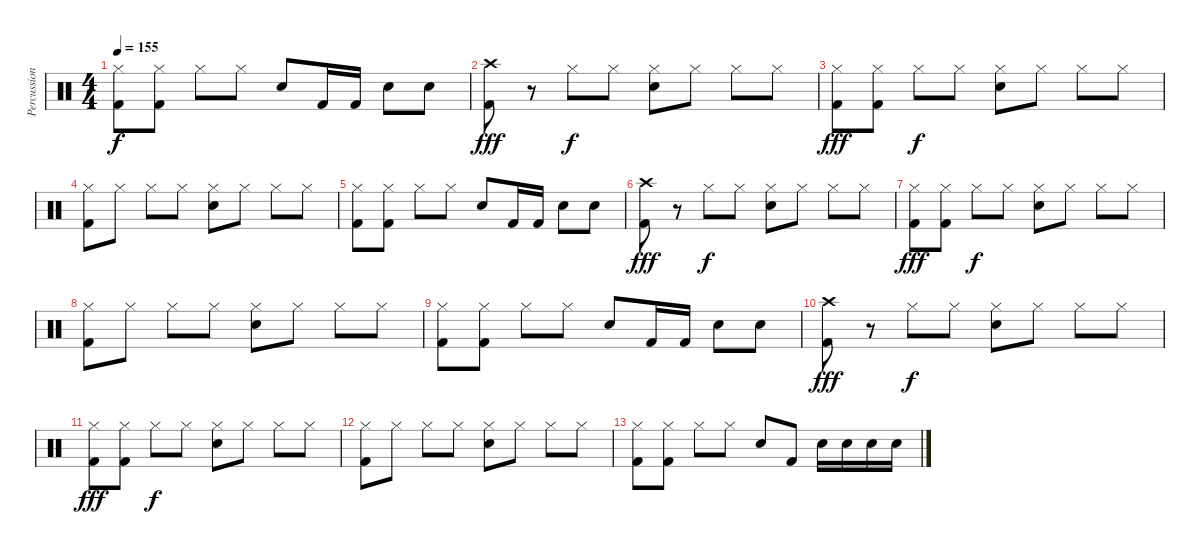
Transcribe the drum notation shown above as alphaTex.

\track ("Percussion" "Percussion") {instrument percussion}
\staff {score}
\articulation defaults
\ts (4 4)
\tempo 155
\clef neutral
\ks c
("Hi-Hat (closed)" "Kick (hit) 2").8{dy f} ("Hi-Hat (closed)" "Kick (hit) 2").8 "Hi-Hat (closed)".8 "Hi-Hat (closed)".8 "Snare (hit) 2".8 "Kick (hit) 2".16 "Kick (hit) 2".16 "Snare (hit) 2".8 "Snare (hit) 2".8 |
("Crash high (hit)" "Kick (hit) 2").8{dy fff} r.8 "Hi-Hat (closed)".8{dy f} "Hi-Hat (closed)".8 ("Hi-Hat (closed)" "Snare (hit) 2").8 "Hi-Hat (closed)".8 "Hi-Hat (closed)".8 "Hi-Hat (closed)".8 |
("Hi-Hat (closed)" "Kick (hit) 2").8{dy fff} ("Hi-Hat (closed)" "Kick (hit) 2").8 "Hi-Hat (closed)".8{dy f} "Hi-Hat (closed)".8 ("Hi-Hat (closed)" "Snare (hit) 2").8 "Hi-Hat (closed)".8 "Hi-Hat (closed)".8 "Hi-Hat (closed)".8 |
("Hi-Hat (closed)" "Kick (hit) 2").8 "Hi-Hat (closed)".8 "Hi-Hat (closed)".8 "Hi-Hat (closed)".8 ("Hi-Hat (closed)" "Snare (hit) 2").8 "Hi-Hat (closed)".8 "Hi-Hat (closed)".8 "Hi-Hat (closed)".8 |
("Hi-Hat (closed)" "Kick (hit) 2").8 ("Hi-Hat (closed)" "Kick (hit) 2").8 "Hi-Hat (closed)".8 "Hi-Hat (closed)".8 "Snare (hit) 2".8 "Kick (hit) 2".16 "Kick (hit) 2".16 "Snare (hit) 2".8 "Snare (hit) 2".8 |
("Crash high (hit)" "Kick (hit) 2").8{dy fff} r.8 "Hi-Hat (closed)".8{dy f} "Hi-Hat (closed)".8 ("Hi-Hat (closed)" "Snare (hit) 2").8 "Hi-Hat (closed)".8 "Hi-Hat (closed)".8 "Hi-Hat (closed)".8 |
("Hi-Hat (closed)" "Kick (hit) 2").8{dy fff} ("Hi-Hat (closed)" "Kick (hit) 2").8 "Hi-Hat (closed)".8{dy f} "Hi-Hat (closed)".8 ("Hi-Hat (closed)" "Snare (hit) 2").8 "Hi-Hat (closed)".8 "Hi-Hat (closed)".8 "Hi-Hat (closed)".8 |
("Hi-Hat (closed)" "Kick (hit) 2").8 "Hi-Hat (closed)".8 "Hi-Hat (closed)".8 "Hi-Hat (closed)".8 ("Hi-Hat (closed)" "Snare (hit) 2").8 "Hi-Hat (closed)".8 "Hi-Hat (closed)".8 "Hi-Hat (closed)".8 |
("Hi-Hat (closed)" "Kick (hit) 2").8 ("Hi-Hat (closed)" "Kick (hit) 2").8 "Hi-Hat (closed)".8 "Hi-Hat (closed)".8 "Snare (hit) 2".8 "Kick (hit) 2".16 "Kick (hit) 2".16 "Snare (hit) 2".8 "Snare (hit) 2".8 |
("Crash high (hit)" "Kick (hit) 2").8{dy fff} r.8 "Hi-Hat (closed)".8{dy f} "Hi-Hat (closed)".8 ("Hi-Hat (closed)" "Snare (hit) 2").8 "Hi-Hat (closed)".8 "Hi-Hat (closed)".8 "Hi-Hat (closed)".8 |
("Hi-Hat (closed)" "Kick (hit) 2").8{dy fff} ("Hi-Hat (closed)" "Kick (hit) 2").8 "Hi-Hat (closed)".8{dy f} "Hi-Hat (closed)".8 ("Hi-Hat (closed)" "Snare (hit) 2").8 "Hi-Hat (closed)".8 "Hi-Hat (closed)".8 "Hi-Hat (closed)".8 |
("Hi-Hat (closed)" "Kick (hit) 2").8 "Hi-Hat (closed)".8 "Hi-Hat (closed)".8 "Hi-Hat (closed)".8 ("Hi-Hat (closed)" "Snare (hit) 2").8 "Hi-Hat (closed)".8 "Hi-Hat (closed)".8 "Hi-Hat (closed)".8 |
("Hi-Hat (closed)" "Kick (hit) 2").8 ("Hi-Hat (closed)" "Kick (hit) 2").8 "Hi-Hat (closed)".8 "Hi-Hat (closed)".8 "Snare (hit) 2".8 "Kick (hit) 2".8 "Snare (hit) 2".16 "Snare (hit) 2".16 "Snare (hit) 2".16 "Snare (hit) 2".16
